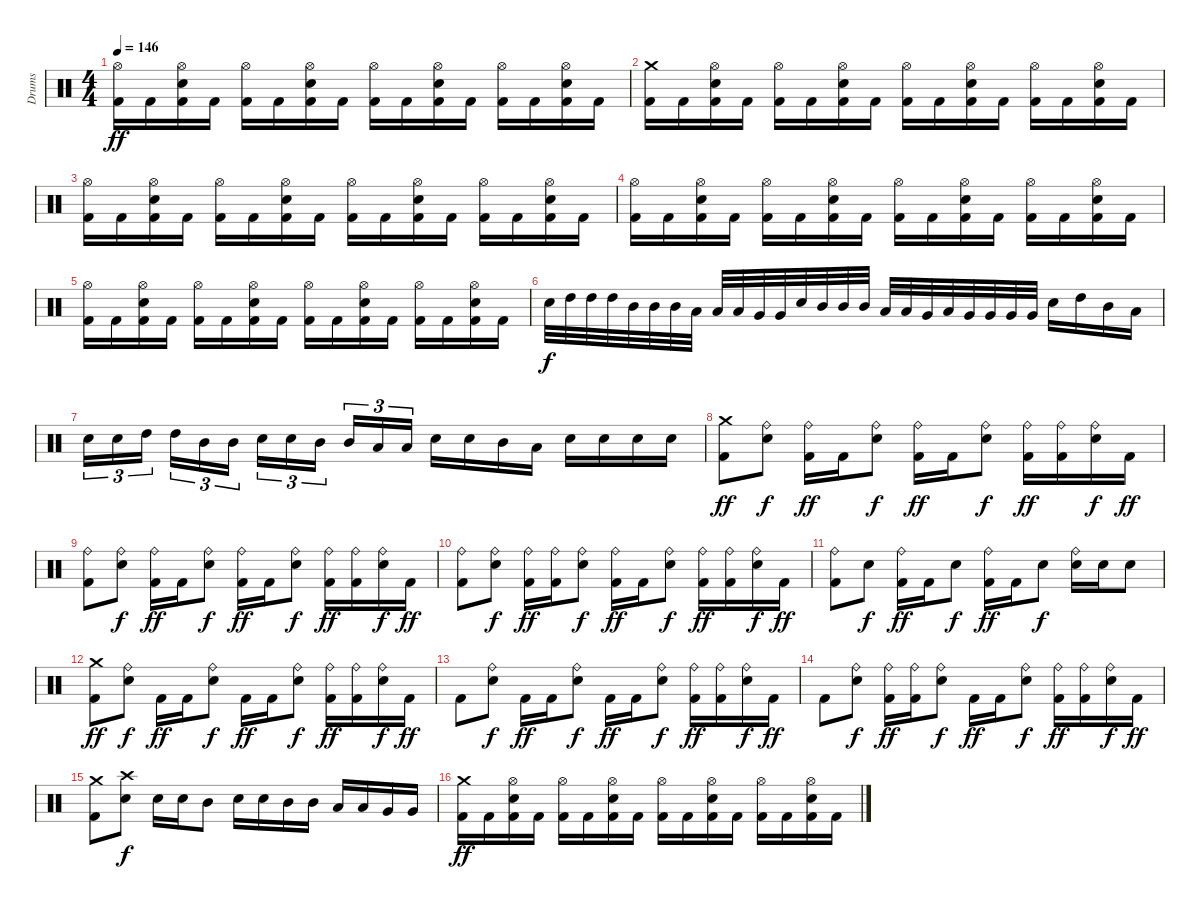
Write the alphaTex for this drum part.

\track ("Drums" "Drums") {instrument percussion}
\staff {score}
\articulation defaults
\ts (4 4)
\tempo 146
\clef neutral
\ks c
("Kick (hit) 2" "Hi-Hat (open)").16{dy ff} "Kick (hit) 2".16 ("Kick (hit) 2" "Electric Snare (hit)" "Hi-Hat (open)").16 "Kick (hit) 2".16 ("Kick (hit) 2" "Hi-Hat (open)").16 "Kick (hit) 2".16 ("Kick (hit) 2" "Electric Snare (hit)" "Hi-Hat (open)").16 "Kick (hit) 2".16 ("Kick (hit) 2" "Hi-Hat (open)").16 "Kick (hit) 2".16 ("Kick (hit) 2" "Electric Snare (hit)" "Hi-Hat (open)").16 "Kick (hit) 2".16 ("Kick (hit) 2" "Hi-Hat (open)").16 "Kick (hit) 2".16 ("Kick (hit) 2" "Electric Snare (hit)" "Hi-Hat (open)").16 "Kick (hit) 2".16 |
("Kick (hit) 2" "Crash medium (hit)").16 "Kick (hit) 2".16 ("Kick (hit) 2" "Electric Snare (hit)" "Hi-Hat (open)").16 "Kick (hit) 2".16 ("Kick (hit) 2" "Hi-Hat (open)").16 "Kick (hit) 2".16 ("Kick (hit) 2" "Electric Snare (hit)" "Hi-Hat (open)").16 "Kick (hit) 2".16 ("Kick (hit) 2" "Hi-Hat (open)").16 "Kick (hit) 2".16 ("Kick (hit) 2" "Electric Snare (hit)" "Hi-Hat (open)").16 "Kick (hit) 2".16 ("Kick (hit) 2" "Hi-Hat (open)").16 "Kick (hit) 2".16 ("Kick (hit) 2" "Electric Snare (hit)" "Hi-Hat (open)").16 "Kick (hit) 2".16 |
("Kick (hit) 2" "Hi-Hat (open)").16 "Kick (hit) 2".16 ("Kick (hit) 2" "Electric Snare (hit)" "Hi-Hat (open)").16 "Kick (hit) 2".16 ("Kick (hit) 2" "Hi-Hat (open)").16 "Kick (hit) 2".16 ("Kick (hit) 2" "Electric Snare (hit)" "Hi-Hat (open)").16 "Kick (hit) 2".16 ("Kick (hit) 2" "Hi-Hat (open)").16 "Kick (hit) 2".16 ("Kick (hit) 2" "Electric Snare (hit)" "Hi-Hat (open)").16 "Kick (hit) 2".16 ("Kick (hit) 2" "Hi-Hat (open)").16 "Kick (hit) 2".16 ("Kick (hit) 2" "Electric Snare (hit)" "Hi-Hat (open)").16 "Kick (hit) 2".16 |
("Kick (hit) 2" "Hi-Hat (open)").16 "Kick (hit) 2".16 ("Kick (hit) 2" "Electric Snare (hit)" "Hi-Hat (open)").16 "Kick (hit) 2".16 ("Kick (hit) 2" "Hi-Hat (open)").16 "Kick (hit) 2".16 ("Kick (hit) 2" "Electric Snare (hit)" "Hi-Hat (open)").16 "Kick (hit) 2".16 ("Kick (hit) 2" "Hi-Hat (open)").16 "Kick (hit) 2".16 ("Kick (hit) 2" "Electric Snare (hit)" "Hi-Hat (open)").16 "Kick (hit) 2".16 ("Kick (hit) 2" "Hi-Hat (open)").16 "Kick (hit) 2".16 ("Kick (hit) 2" "Electric Snare (hit)" "Hi-Hat (open)").16 "Kick (hit) 2".16 |
("Kick (hit) 2" "Hi-Hat (open)").16 "Kick (hit) 2".16 ("Kick (hit) 2" "Electric Snare (hit)" "Hi-Hat (open)").16 "Kick (hit) 2".16 ("Kick (hit) 2" "Hi-Hat (open)").16 "Kick (hit) 2".16 ("Kick (hit) 2" "Electric Snare (hit)" "Hi-Hat (open)").16 "Kick (hit) 2".16 ("Kick (hit) 2" "Hi-Hat (open)").16 "Kick (hit) 2".16 ("Kick (hit) 2" "Electric Snare (hit)" "Hi-Hat (open)").16 "Kick (hit) 2".16 ("Kick (hit) 2" "Hi-Hat (open)").16 "Kick (hit) 2".16 ("Kick (hit) 2" "Electric Snare (hit)" "Hi-Hat (open)").16 "Kick (hit) 2".16 |
"Electric Snare (hit)".32{dy f} "High Tom (hit)".32 "High Tom (hit)".32 "High Tom (hit)".32 "Mid Tom (hit)".32 "Mid Tom (hit)".32 "Mid Tom (hit)".32 "Low Tom (hit)".32 "Low Tom (hit)".32 "Low Tom (hit)".32 "Very Low Tom (hit)".32 "Very Low Tom (hit)".32 "Electric Snare (hit)".32 "Mid Tom (hit)".32 "Mid Tom (hit)".32 "Mid Tom (hit)".32 "Low Tom (hit)".32 "Low Tom (hit)".32 "Very Low Tom (hit)".32 "Low Tom (hit)".32 "Very Low Tom (hit)".32 "Very Low Tom (hit)".32 "Very Low Tom (hit)".32 "Very Low Tom (hit)".32 "Electric Snare (hit)".16 "High Tom (hit)".16 "Mid Tom (hit)".16 "Low Tom (hit)".16 |
"Electric Snare (hit)".16{tu (3 2)} "Electric Snare (hit)".16{tu (3 2)} "High Tom (hit)".16{tu (3 2)} "High Tom (hit)".16{tu (3 2)} "Mid Tom (hit)".16{tu (3 2)} "Mid Tom (hit)".16{tu (3 2)} "Electric Snare (hit)".16{tu (3 2)} "Electric Snare (hit)".16{tu (3 2)} "Mid Tom (hit)".16{tu (3 2)} "Mid Tom (hit)".16{tu (3 2)} "Low Tom (hit)".16{tu (3 2)} "Low Tom (hit)".16{tu (3 2)} "Electric Snare (hit)".16 "Electric Snare (hit)".16 "Mid Tom (hit)".16 "Low Tom (hit)".16 "Electric Snare (hit)".16 "Electric Snare (hit)".16 "Electric Snare (hit)".16 "Electric Snare (hit)".16 |
("Kick (hit) 2" "Crash medium (hit)").8{dy ff} ("Electric Snare (hit)" "Ride (bell)").8{dy f} ("Kick (hit) 2" "Ride (bell)").16{dy ff} "Kick (hit) 2".16 ("Electric Snare (hit)" "Ride (bell)").8{dy f} ("Kick (hit) 2" "Ride (bell)").16{dy ff} "Kick (hit) 2".16 ("Electric Snare (hit)" "Ride (bell)").8{dy f} ("Kick (hit) 2" "Ride (bell)").16{dy ff} ("Kick (hit) 2" "Ride (bell)").16 ("Electric Snare (hit)" "Ride (bell)").16{dy f} "Kick (hit) 2".16{dy ff} |
("Kick (hit) 2" "Ride (bell)").8 ("Electric Snare (hit)" "Ride (bell)").8{dy f} ("Kick (hit) 2" "Ride (bell)").16{dy ff} "Kick (hit) 2".16 ("Electric Snare (hit)" "Ride (bell)").8{dy f} ("Kick (hit) 2" "Ride (bell)").16{dy ff} "Kick (hit) 2".16 ("Electric Snare (hit)" "Ride (bell)").8{dy f} ("Kick (hit) 2" "Ride (bell)").16{dy ff} ("Kick (hit) 2" "Ride (bell)").16 ("Electric Snare (hit)" "Ride (bell)").16{dy f} "Kick (hit) 2".16{dy ff} |
("Kick (hit) 2" "Ride (bell)").8 ("Electric Snare (hit)" "Ride (bell)").8{dy f} ("Kick (hit) 2" "Ride (bell)").16{dy ff} ("Kick (hit) 2" "Ride (bell)").16 ("Electric Snare (hit)" "Ride (bell)").8{dy f} ("Kick (hit) 2" "Ride (bell)").16{dy ff} "Kick (hit) 2".16 ("Electric Snare (hit)" "Ride (bell)").8{dy f} ("Kick (hit) 2" "Ride (bell)").16{dy ff} ("Kick (hit) 2" "Ride (bell)").16 ("Electric Snare (hit)" "Ride (bell)").16{dy f} "Kick (hit) 2".16{dy ff} |
("Kick (hit) 2" "Ride (bell)").8 "Electric Snare (hit)".8{dy f} ("Kick (hit) 2" "Ride (bell)").16{dy ff} "Kick (hit) 2".16 "Electric Snare (hit)".8{dy f} ("Kick (hit) 2" "Ride (bell)").16{dy ff} "Kick (hit) 2".16 "Electric Snare (hit)".8{dy f} ("Electric Snare (hit)" "Ride (bell)").16 "Electric Snare (hit)".16 "Electric Snare (hit)".8 |
("Kick (hit) 2" "Crash medium (hit)").8{dy ff} ("Electric Snare (hit)" "Ride (bell)").8{dy f} "Kick (hit) 2".16{dy ff} "Kick (hit) 2".16 ("Electric Snare (hit)" "Ride (bell)").8{dy f} "Kick (hit) 2".16{dy ff} "Kick (hit) 2".16 ("Electric Snare (hit)" "Ride (bell)").8{dy f} ("Kick (hit) 2" "Ride (bell)").16{dy ff} ("Kick (hit) 2" "Ride (bell)").16 ("Electric Snare (hit)" "Ride (bell)").16{dy f} "Kick (hit) 2".16{dy ff} |
"Kick (hit) 2".8 ("Electric Snare (hit)" "Ride (bell)").8{dy f} "Kick (hit) 2".16{dy ff} "Kick (hit) 2".16 ("Electric Snare (hit)" "Ride (bell)").8{dy f} "Kick (hit) 2".16{dy ff} "Kick (hit) 2".16 ("Electric Snare (hit)" "Ride (bell)").8{dy f} ("Kick (hit) 2" "Ride (bell)").16{dy ff} ("Kick (hit) 2" "Ride (bell)").16 ("Electric Snare (hit)" "Ride (bell)").16{dy f} "Kick (hit) 2".16{dy ff} |
"Kick (hit) 2".8 ("Electric Snare (hit)" "Ride (bell)").8{dy f} ("Kick (hit) 2" "Ride (bell)").16{dy ff} ("Kick (hit) 2" "Ride (bell)").16 ("Electric Snare (hit)" "Ride (bell)").8{dy f} "Kick (hit) 2".16{dy ff} "Kick (hit) 2".16 ("Electric Snare (hit)" "Ride (bell)").8{dy f} ("Kick (hit) 2" "Ride (bell)").16{dy ff} ("Kick (hit) 2" "Ride (bell)").16 ("Electric Snare (hit)" "Ride (bell)").16{dy f} "Kick (hit) 2".16{dy ff} |
("Kick (hit) 2" "Crash medium (hit)").8 ("Electric Snare (hit)" "Crash high (hit)").8{dy f} "Electric Snare (hit)".16 "Electric Snare (hit)".16 "Mid Tom (hit)".8 "Electric Snare (hit)".16 "Electric Snare (hit)".16 "Mid Tom (hit)".16 "Mid Tom (hit)".16 "Low Tom (hit)".16 "Low Tom (hit)".16 "Very Low Tom (hit)".16 "Very Low Tom (hit)".16 |
("Kick (hit) 2" "Crash medium (hit)").16{dy ff} "Kick (hit) 2".16 ("Kick (hit) 2" "Electric Snare (hit)" "Hi-Hat (open)").16 "Kick (hit) 2".16 ("Kick (hit) 2" "Hi-Hat (open)").16 "Kick (hit) 2".16 ("Kick (hit) 2" "Electric Snare (hit)" "Hi-Hat (open)").16 "Kick (hit) 2".16 ("Kick (hit) 2" "Hi-Hat (open)").16 "Kick (hit) 2".16 ("Kick (hit) 2" "Electric Snare (hit)" "Hi-Hat (open)").16 "Kick (hit) 2".16 ("Kick (hit) 2" "Hi-Hat (open)").16 "Kick (hit) 2".16 ("Kick (hit) 2" "Electric Snare (hit)" "Hi-Hat (open)").16 "Kick (hit) 2".16
